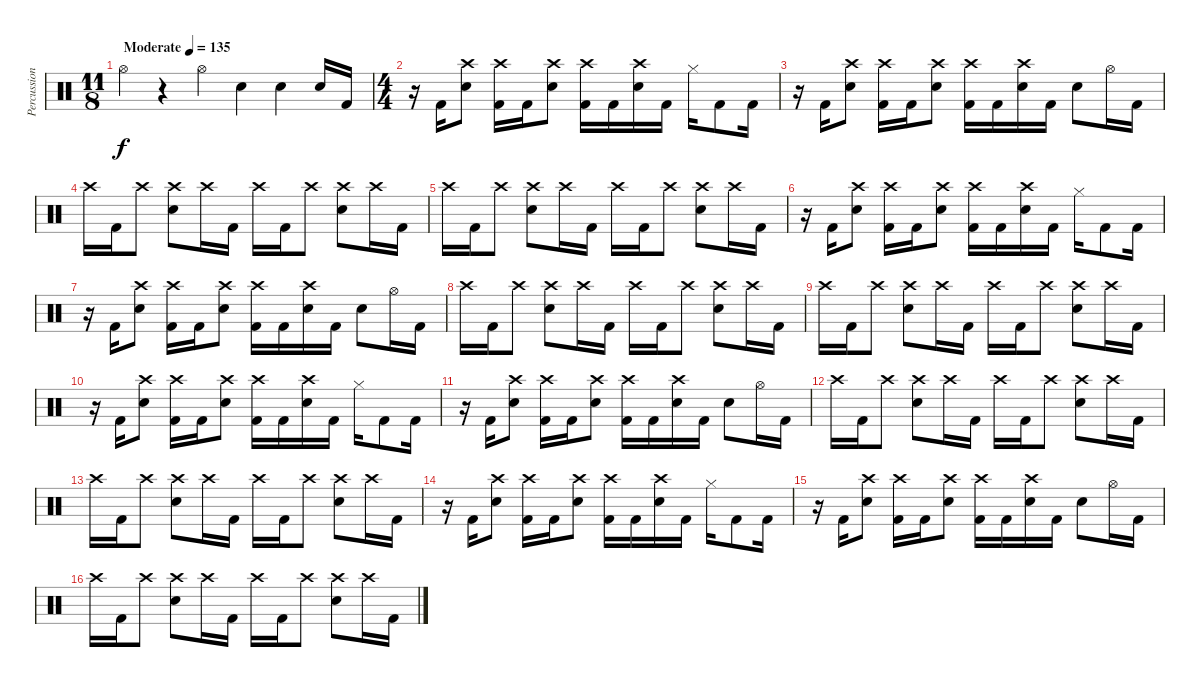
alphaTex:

\track ("Percussion" "Percussion") {instrument percussion}
\staff
\articulation defaults
\ts (11 8)
\tempo (135 "Moderate")
\clef neutral
\ks c "Hi-Hat (open)".4{dy f}
r.4 "Hi-Hat (open)".4 "Electric Snare (hit)".4 "Electric Snare (hit)".4 "Electric Snare (hit)".16 "Kick (hit) 2".16 |
\ts (4 4)
r.16 "Kick (hit) 2".16 ("Crash high (hit)" "Electric Snare (hit)").8 ("Crash high (hit)" "Kick (hit) 2").16 "Kick (hit) 2".16 ("Crash high (hit)" "Electric Snare (hit)").8 ("Crash high (hit)" "Kick (hit) 2").16 "Kick (hit) 2".16 ("Crash high (hit)" "Electric Snare (hit)").16 "Kick (hit) 2".16 "Hi-Hat (closed)".16 "Kick (hit) 2".8 "Kick (hit) 2".16 |
r.16 "Kick (hit) 2".16 ("Crash high (hit)" "Electric Snare (hit)").8 ("Crash high (hit)" "Kick (hit) 2").16 "Kick (hit) 2".16 ("Crash high (hit)" "Electric Snare (hit)").8 ("Crash high (hit)" "Kick (hit) 2").16 "Kick (hit) 2".16 ("Crash high (hit)" "Electric Snare (hit)").16 "Kick (hit) 2".16 "Electric Snare (hit)".8 "Hi-Hat (open)".16 "Kick (hit) 2".16 |
"Crash high (hit)".16 "Kick (hit) 2".16 "Crash high (hit)".8 ("Crash high (hit)" "Electric Snare (hit)").8 "Crash high (hit)".16 "Kick (hit) 2".16 "Crash high (hit)".16 "Kick (hit) 2".16 "Crash high (hit)".8 ("Crash high (hit)" "Electric Snare (hit)").8 "Crash high (hit)".16 "Kick (hit) 2".16 |
"Crash high (hit)".16 "Kick (hit) 2".16 "Crash high (hit)".8 ("Crash high (hit)" "Electric Snare (hit)").8 "Crash high (hit)".16 "Kick (hit) 2".16 "Crash high (hit)".16 "Kick (hit) 2".16 "Crash high (hit)".8 ("Crash high (hit)" "Electric Snare (hit)").8 "Crash high (hit)".16 "Kick (hit) 2".16 |
r.16 "Kick (hit) 2".16 ("Crash high (hit)" "Electric Snare (hit)").8 ("Crash high (hit)" "Kick (hit) 2").16 "Kick (hit) 2".16 ("Crash high (hit)" "Electric Snare (hit)").8 ("Crash high (hit)" "Kick (hit) 2").16 "Kick (hit) 2".16 ("Crash high (hit)" "Electric Snare (hit)").16 "Kick (hit) 2".16 "Hi-Hat (closed)".16 "Kick (hit) 2".8 "Kick (hit) 2".16 |
r.16 "Kick (hit) 2".16 ("Crash high (hit)" "Electric Snare (hit)").8 ("Crash high (hit)" "Kick (hit) 2").16 "Kick (hit) 2".16 ("Crash high (hit)" "Electric Snare (hit)").8 ("Crash high (hit)" "Kick (hit) 2").16 "Kick (hit) 2".16 ("Crash high (hit)" "Electric Snare (hit)").16 "Kick (hit) 2".16 "Electric Snare (hit)".8 "Hi-Hat (open)".16 "Kick (hit) 2".16 |
"Crash high (hit)".16 "Kick (hit) 2".16 "Crash high (hit)".8 ("Crash high (hit)" "Electric Snare (hit)").8 "Crash high (hit)".16 "Kick (hit) 2".16 "Crash high (hit)".16 "Kick (hit) 2".16 "Crash high (hit)".8 ("Crash high (hit)" "Electric Snare (hit)").8 "Crash high (hit)".16 "Kick (hit) 2".16 |
"Crash high (hit)".16 "Kick (hit) 2".16 "Crash high (hit)".8 ("Crash high (hit)" "Electric Snare (hit)").8 "Crash high (hit)".16 "Kick (hit) 2".16 "Crash high (hit)".16 "Kick (hit) 2".16 "Crash high (hit)".8 ("Crash high (hit)" "Electric Snare (hit)").8 "Crash high (hit)".16 "Kick (hit) 2".16 |
r.16 "Kick (hit) 2".16 ("Crash high (hit)" "Electric Snare (hit)").8 ("Crash high (hit)" "Kick (hit) 2").16 "Kick (hit) 2".16 ("Crash high (hit)" "Electric Snare (hit)").8 ("Crash high (hit)" "Kick (hit) 2").16 "Kick (hit) 2".16 ("Crash high (hit)" "Electric Snare (hit)").16 "Kick (hit) 2".16 "Hi-Hat (closed)".16 "Kick (hit) 2".8 "Kick (hit) 2".16 |
r.16 "Kick (hit) 2".16 ("Crash high (hit)" "Electric Snare (hit)").8 ("Crash high (hit)" "Kick (hit) 2").16 "Kick (hit) 2".16 ("Crash high (hit)" "Electric Snare (hit)").8 ("Crash high (hit)" "Kick (hit) 2").16 "Kick (hit) 2".16 ("Crash high (hit)" "Electric Snare (hit)").16 "Kick (hit) 2".16 "Electric Snare (hit)".8 "Hi-Hat (open)".16 "Kick (hit) 2".16 |
"Crash high (hit)".16 "Kick (hit) 2".16 "Crash high (hit)".8 ("Crash high (hit)" "Electric Snare (hit)").8 "Crash high (hit)".16 "Kick (hit) 2".16 "Crash high (hit)".16 "Kick (hit) 2".16 "Crash high (hit)".8 ("Crash high (hit)" "Electric Snare (hit)").8 "Crash high (hit)".16 "Kick (hit) 2".16 |
"Crash high (hit)".16 "Kick (hit) 2".16 "Crash high (hit)".8 ("Crash high (hit)" "Electric Snare (hit)").8 "Crash high (hit)".16 "Kick (hit) 2".16 "Crash high (hit)".16 "Kick (hit) 2".16 "Crash high (hit)".8 ("Crash high (hit)" "Electric Snare (hit)").8 "Crash high (hit)".16 "Kick (hit) 2".16 |
r.16 "Kick (hit) 2".16 ("Crash high (hit)" "Electric Snare (hit)").8 ("Crash high (hit)" "Kick (hit) 2").16 "Kick (hit) 2".16 ("Crash high (hit)" "Electric Snare (hit)").8 ("Crash high (hit)" "Kick (hit) 2").16 "Kick (hit) 2".16 ("Crash high (hit)" "Electric Snare (hit)").16 "Kick (hit) 2".16 "Hi-Hat (closed)".16 "Kick (hit) 2".8 "Kick (hit) 2".16 |
r.16 "Kick (hit) 2".16 ("Crash high (hit)" "Electric Snare (hit)").8 ("Crash high (hit)" "Kick (hit) 2").16 "Kick (hit) 2".16 ("Crash high (hit)" "Electric Snare (hit)").8 ("Crash high (hit)" "Kick (hit) 2").16 "Kick (hit) 2".16 ("Crash high (hit)" "Electric Snare (hit)").16 "Kick (hit) 2".16 "Electric Snare (hit)".8 "Hi-Hat (open)".16 "Kick (hit) 2".16 |
"Crash high (hit)".16 "Kick (hit) 2".16 "Crash high (hit)".8 ("Crash high (hit)" "Electric Snare (hit)").8 "Crash high (hit)".16 "Kick (hit) 2".16 "Crash high (hit)".16 "Kick (hit) 2".16 "Crash high (hit)".8 ("Crash high (hit)" "Electric Snare (hit)").8 "Crash high (hit)".16 "Kick (hit) 2".16
